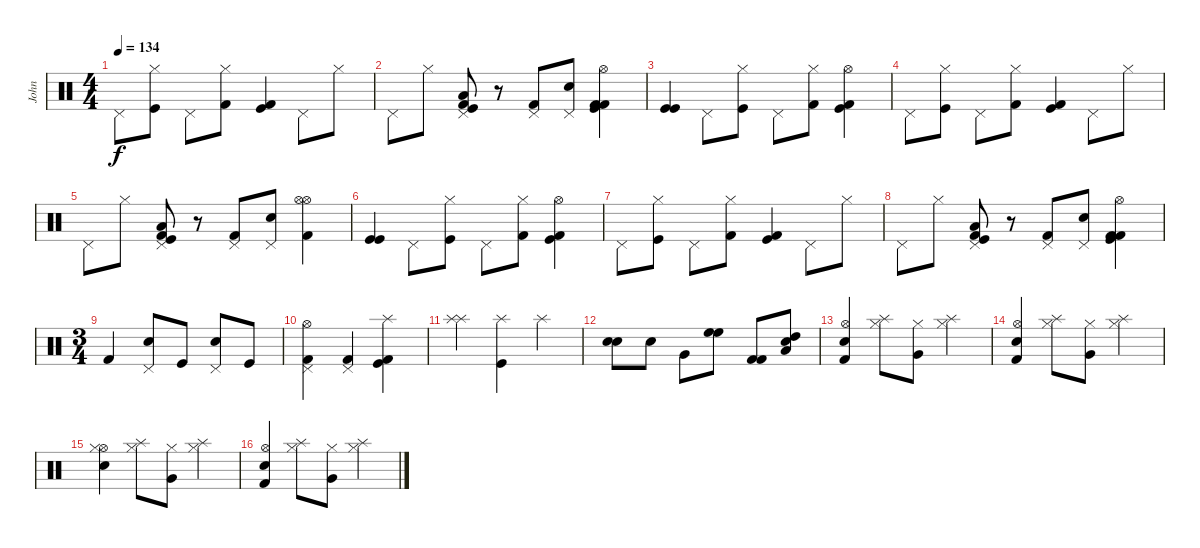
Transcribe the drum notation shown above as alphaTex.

\track ("John" "John") {instrument percussion}
\staff {score}
\articulation defaults
\ts (4 4)
\tempo 134
\clef neutral
\ks c "Pedal Hi-Hat (hit)".8{dy f}
("Hi-Hat (closed)" "Kick (hit)").8 "Pedal Hi-Hat (hit)".8 ("Hi-Hat (closed)" "Kick (hit) 2").8 ("Kick (hit)" "Kick (hit) 2").4 "Pedal Hi-Hat (hit)".8 "Hi-Hat (closed)".8 |
"Pedal Hi-Hat (hit)".8 "Hi-Hat (closed)".8 ("Low Tom (hit)" "Kick (hit)" "Kick (hit) 2" "Pedal Hi-Hat (hit)").8 r.8 ("Pedal Hi-Hat (hit)" "Kick (hit) 2").8 ("Pedal Hi-Hat (hit)" "Snare (hit) 2").8 ("Kick (hit)" "Kick (hit) 2" "Hi-Hat (open)" "Kick (hit) 2").4 |
("Kick (hit)" "Kick (hit)").4 "Pedal Hi-Hat (hit)".8 ("Hi-Hat (closed)" "Kick (hit)").8 "Pedal Hi-Hat (hit)".8 ("Hi-Hat (closed)" "Kick (hit) 2").8 ("Kick (hit)" "Kick (hit) 2" "Hi-Hat (open)").4 |
"Pedal Hi-Hat (hit)".8 ("Hi-Hat (closed)" "Kick (hit)").8 "Pedal Hi-Hat (hit)".8 ("Hi-Hat (closed)" "Kick (hit) 2").8 ("Kick (hit)" "Kick (hit) 2").4 "Pedal Hi-Hat (hit)".8 "Hi-Hat (closed)".8 |
"Pedal Hi-Hat (hit)".8 "Hi-Hat (closed)".8 ("Low Tom (hit)" "Kick (hit)" "Kick (hit) 2" "Pedal Hi-Hat (hit)").8 r.8 ("Pedal Hi-Hat (hit)" "Kick (hit) 2").8 ("Pedal Hi-Hat (hit)" "Snare (hit) 2").8 ("Kick (hit) 2" "Hi-Hat (open)" "Hi-Hat (open)").4 |
("Kick (hit)" "Kick (hit)").4 "Pedal Hi-Hat (hit)".8 ("Hi-Hat (closed)" "Kick (hit)").8 "Pedal Hi-Hat (hit)".8 ("Hi-Hat (closed)" "Kick (hit) 2").8 ("Kick (hit)" "Kick (hit) 2" "Hi-Hat (open)").4 |
"Pedal Hi-Hat (hit)".8 ("Hi-Hat (closed)" "Kick (hit)").8 "Pedal Hi-Hat (hit)".8 ("Hi-Hat (closed)" "Kick (hit) 2").8 ("Kick (hit)" "Kick (hit) 2").4 "Pedal Hi-Hat (hit)".8 "Hi-Hat (closed)".8 |
"Pedal Hi-Hat (hit)".8 "Hi-Hat (closed)".8 ("Low Tom (hit)" "Kick (hit)" "Kick (hit) 2" "Pedal Hi-Hat (hit)").8 r.8 ("Pedal Hi-Hat (hit)" "Kick (hit) 2").8 ("Pedal Hi-Hat (hit)" "Snare (hit) 2").8 ("Kick (hit)" "Kick (hit) 2" "Hi-Hat (open)" "Kick (hit) 2").4 |
\ts (3 4)
"Kick (hit) 2".4 ("Pedal Hi-Hat (hit)" "Snare (hit) 2").8 "Kick (hit)".8 ("Pedal Hi-Hat (hit)" "Snare (hit) 2").8 "Kick (hit)".8 |
("Pedal Hi-Hat (hit)" "Kick (hit) 2" "Hi-Hat (open)").4 ("Pedal Hi-Hat (hit)" "Kick (hit) 2").4 ("Splash (hit)" "Kick (hit)" "Kick (hit) 2").4 |
("Splash (hit)" "Splash (hit)").4 ("Splash (hit)" "Kick (hit)").4 "Splash (hit)".4 |
("Snare (hit) 2" "Snare (hit) 2").8 "Snare (hit) 2".8 "Very Low Tom (hit)".8 ("High Floor Tom (hit)" "High Floor Tom (hit)").8 ("Kick (hit) 2" "Kick (hit) 2").8 ("Electric Snare (hit)" "High Tom (hit)" "Low Tom (hit)").8 |
("Hi-Hat (open)" "Electric Snare (hit)" "Kick (hit) 2").4 ("Hi-Hat (closed)" "Splash (hit)").8 ("Hi-Hat (closed)" "Very Low Tom (hit)").8 ("Hi-Hat (closed)" "Splash (hit)").4 |
("Hi-Hat (open)" "Electric Snare (hit)" "Kick (hit) 2").4 ("Hi-Hat (closed)" "Splash (hit)").8 ("Hi-Hat (closed)" "Very Low Tom (hit)").8 ("Hi-Hat (closed)" "Splash (hit)").4 |
("Hi-Hat (open)" "Hi-Hat (closed)" "Electric Snare (hit)").4 ("Hi-Hat (closed)" "Splash (hit)").8 ("Hi-Hat (closed)" "Very Low Tom (hit)").8 ("Hi-Hat (closed)" "Splash (hit)").4 |
("Hi-Hat (open)" "Electric Snare (hit)" "Kick (hit) 2").4 ("Hi-Hat (closed)" "Splash (hit)").8 ("Hi-Hat (closed)" "Very Low Tom (hit)").8 ("Hi-Hat (closed)" "Splash (hit)").4
